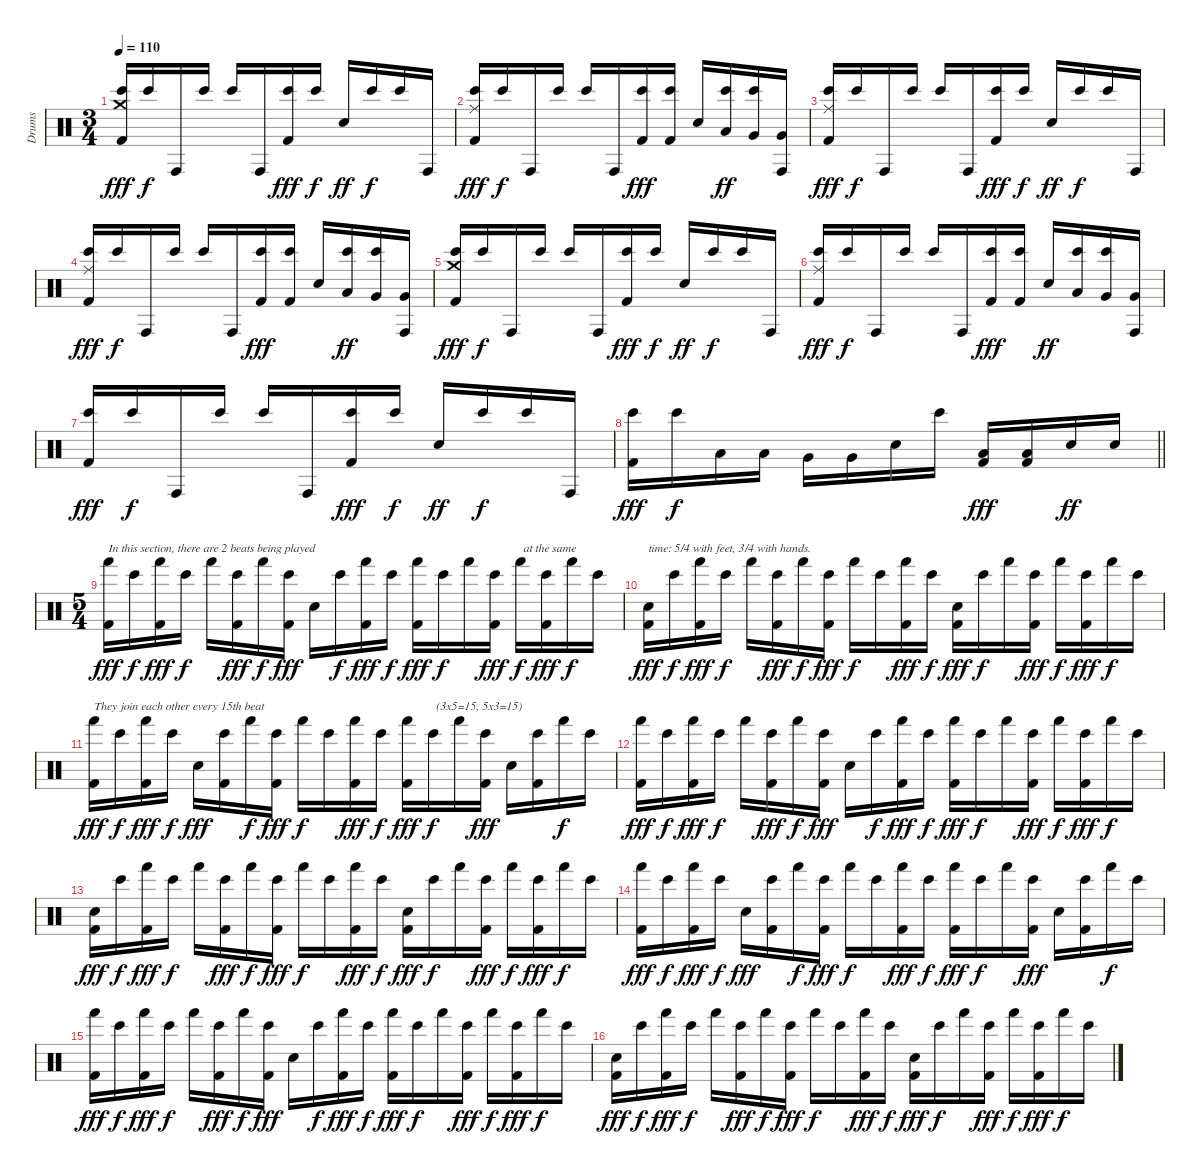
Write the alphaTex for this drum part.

\track ("Drums" "Drums") {instrument percussion}
\staff {score}
\articulation defaults
\ts (3 4)
\section ("" "")
\tempo 110
\clef neutral
\ks c
("Crash medium (hit)" "Bongo High (hit)" "Kick (hit) 2").16{dy fff} "Bongo High (hit)".16{dy f} "Conga high (hit)".16 "Bongo High (hit)".16 "Bongo High (hit)".16 "Conga high (hit)".16 ("Bongo High (hit)" "Kick (hit) 2").16{dy fff} "Bongo High (hit)".16{dy f} "Snare (hit) 2".16{dy ff} "Bongo High (hit)".16{dy f} "Bongo High (hit)".16 "Conga high (hit)".16 |
("Ride (middle)" "Bongo High (hit)" "Kick (hit) 2").16{dy fff} "Bongo High (hit)".16{dy f} "Conga high (hit)".16 "Bongo High (hit)".16 "Bongo High (hit)".16 "Conga high (hit)".16 ("Bongo High (hit)" "Kick (hit) 2").16{dy fff} ("Bongo High (hit)" "Kick (hit) 2").16 "Snare (hit) 2".16 ("Bongo High (hit)" "Low Tom (hit)").16{dy ff} ("Bongo High (hit)" "Very Low Tom (hit)").16 ("Conga high (hit)" "Very Low Tom (hit)").16 |
("Ride (middle)" "Bongo High (hit)" "Kick (hit) 2").16{dy fff} "Bongo High (hit)".16{dy f} "Conga high (hit)".16 "Bongo High (hit)".16 "Bongo High (hit)".16 "Conga high (hit)".16 ("Bongo High (hit)" "Kick (hit) 2").16{dy fff} "Bongo High (hit)".16{dy f} "Snare (hit) 2".16{dy ff} "Bongo High (hit)".16{dy f} "Bongo High (hit)".16 "Conga high (hit)".16 |
("Ride (middle)" "Bongo High (hit)" "Kick (hit) 2").16{dy fff} "Bongo High (hit)".16{dy f} "Conga high (hit)".16 "Bongo High (hit)".16 "Bongo High (hit)".16 "Conga high (hit)".16 ("Bongo High (hit)" "Kick (hit) 2").16{dy fff} ("Bongo High (hit)" "Kick (hit) 2").16 "Snare (hit) 2".16 ("Bongo High (hit)" "Low Tom (hit)").16{dy ff} ("Bongo High (hit)" "Very Low Tom (hit)").16 ("Conga high (hit)" "Very Low Tom (hit)").16 |
("Crash medium (hit)" "Bongo High (hit)" "Kick (hit) 2").16{dy fff} "Bongo High (hit)".16{dy f} "Conga high (hit)".16 "Bongo High (hit)".16 "Bongo High (hit)".16 "Conga high (hit)".16 ("Bongo High (hit)" "Kick (hit) 2").16{dy fff} "Bongo High (hit)".16{dy f} "Snare (hit) 2".16{dy ff} "Bongo High (hit)".16{dy f} "Bongo High (hit)".16 "Conga high (hit)".16 |
("Ride (middle)" "Bongo High (hit)" "Kick (hit) 2").16{dy fff} "Bongo High (hit)".16{dy f} "Conga high (hit)".16 "Bongo High (hit)".16 "Bongo High (hit)".16 "Conga high (hit)".16 ("Bongo High (hit)" "Kick (hit) 2").16{dy fff} ("Bongo High (hit)" "Kick (hit) 2").16 "Snare (hit) 2".16{dy ff} ("Bongo High (hit)" "Low Tom (hit)").16 ("Bongo High (hit)" "Very Low Tom (hit)").16 ("Conga high (hit)" "Very Low Tom (hit)").16 |
("Bongo High (hit)" "Kick (hit) 2").16{dy fff} "Bongo High (hit)".16{dy f} "Conga high (hit)".16 "Bongo High (hit)".16 "Bongo High (hit)".16 "Conga high (hit)".16 ("Bongo High (hit)" "Kick (hit) 2").16{dy fff} "Bongo High (hit)".16{dy f} "Snare (hit) 2".16{dy ff} "Bongo High (hit)".16{dy f} "Bongo High (hit)".16 "Conga high (hit)".16 |
\barLineRight lightlight
("Bongo High (hit)" "Kick (hit) 2").16{dy fff} "Bongo High (hit)".16{dy f} "Low Tom (hit)".16 "Low Tom (hit)".16 "Very Low Tom (hit)".16 "Very Low Tom (hit)".16 "Snare (hit) 2".16 "Bongo High (hit)".16 ("Low Tom (hit)" "Kick (hit) 2").16{dy fff} ("Low Tom (hit)" "Kick (hit) 2").16 "Snare (hit) 2".16{dy ff} "Snare (hit) 2".16 |
\ts (5 4)
\section ("" "")
("Hand (hit)" "Kick (hit) 2").16{txt "In this section, there are 2 beats being played" dy fff} "Bongo High (hit)".16{dy f} ("Hand (hit)" "Kick (hit) 2").16{dy fff} "Bongo High (hit)".16{dy f} "Hand (hit)".16 ("Bongo High (hit)" "Kick (hit) 2").16{dy fff} "Hand (hit)".16{dy f} ("Bongo High (hit)" "Kick (hit) 2").16{dy fff} "Snare (hit) 2".16 "Bongo High (hit)".16{dy f} ("Hand (hit)" "Kick (hit) 2").16{dy fff} "Bongo High (hit)".16{dy f} ("Hand (hit)" "Kick (hit) 2").16{dy fff} "Bongo High (hit)".16{dy f} "Hand (hit)".16 ("Bongo High (hit)" "Kick (hit) 2").16{dy fff} "Hand (hit)".16{txt " at the same " dy f} ("Bongo High (hit)" "Kick (hit) 2").16{dy fff} "Hand (hit)".16{dy f} "Bongo High (hit)".16 |
("Snare (hit) 2" "Kick (hit) 2").16{txt "time: 5/4 with feet, 3/4 with hands." dy fff} "Bongo High (hit)".16{dy f} ("Hand (hit)" "Kick (hit) 2").16{dy fff} "Bongo High (hit)".16{dy f} "Hand (hit)".16 ("Bongo High (hit)" "Kick (hit) 2").16{dy fff} "Hand (hit)".16{dy f} ("Bongo High (hit)" "Kick (hit) 2").16{dy fff} "Hand (hit)".16{dy f} "Bongo High (hit)".16 ("Hand (hit)" "Kick (hit) 2").16{dy fff} "Bongo High (hit)".16{dy f} ("Snare (hit) 2" "Kick (hit) 2").16{dy fff} "Bongo High (hit)".16{dy f} "Hand (hit)".16 ("Bongo High (hit)" "Kick (hit) 2").16{dy fff} "Hand (hit)".16{dy f} ("Bongo High (hit)" "Kick (hit) 2").16{dy fff} "Hand (hit)".16{dy f} "Bongo High (hit)".16 |
("Hand (hit)" "Kick (hit) 2").16{txt "They join each other every 15th beat" dy fff} "Bongo High (hit)".16{dy f} ("Hand (hit)" "Kick (hit) 2").16{dy fff} "Bongo High (hit)".16{dy f} "Snare (hit) 2".16{dy fff} ("Bongo High (hit)" "Kick (hit) 2").16 "Hand (hit)".16{dy f} ("Bongo High (hit)" "Kick (hit) 2").16{dy fff} "Hand (hit)".16{dy f} "Bongo High (hit)".16 ("Hand (hit)" "Kick (hit) 2").16{dy fff} "Bongo High (hit)".16{dy f} ("Hand (hit)" "Kick (hit) 2").16{dy fff} "Bongo High (hit)".16{txt " (3x5=15, 5x3=15)" dy f} "Hand (hit)".16 ("Bongo High (hit)" "Kick (hit) 2").16{dy fff} "Snare (hit) 2".16 ("Bongo High (hit)" "Kick (hit) 2").16 "Hand (hit)".16{dy f} "Bongo High (hit)".16 |
("Hand (hit)" "Kick (hit) 2").16{dy fff} "Bongo High (hit)".16{dy f} ("Hand (hit)" "Kick (hit) 2").16{dy fff} "Bongo High (hit)".16{dy f} "Hand (hit)".16 ("Bongo High (hit)" "Kick (hit) 2").16{dy fff} "Hand (hit)".16{dy f} ("Bongo High (hit)" "Kick (hit) 2").16{dy fff} "Snare (hit) 2".16 "Bongo High (hit)".16{dy f} ("Hand (hit)" "Kick (hit) 2").16{dy fff} "Bongo High (hit)".16{dy f} ("Hand (hit)" "Kick (hit) 2").16{dy fff} "Bongo High (hit)".16{dy f} "Hand (hit)".16 ("Bongo High (hit)" "Kick (hit) 2").16{dy fff} "Hand (hit)".16{dy f} ("Bongo High (hit)" "Kick (hit) 2").16{dy fff} "Hand (hit)".16{dy f} "Bongo High (hit)".16 |
("Snare (hit) 2" "Kick (hit) 2").16{dy fff} "Bongo High (hit)".16{dy f} ("Hand (hit)" "Kick (hit) 2").16{dy fff} "Bongo High (hit)".16{dy f} "Hand (hit)".16 ("Bongo High (hit)" "Kick (hit) 2").16{dy fff} "Hand (hit)".16{dy f} ("Bongo High (hit)" "Kick (hit) 2").16{dy fff} "Hand (hit)".16{dy f} "Bongo High (hit)".16 ("Hand (hit)" "Kick (hit) 2").16{dy fff} "Bongo High (hit)".16{dy f} ("Snare (hit) 2" "Kick (hit) 2").16{dy fff} "Bongo High (hit)".16{dy f} "Hand (hit)".16 ("Bongo High (hit)" "Kick (hit) 2").16{dy fff} "Hand (hit)".16{dy f} ("Bongo High (hit)" "Kick (hit) 2").16{dy fff} "Hand (hit)".16{dy f} "Bongo High (hit)".16 |
("Hand (hit)" "Kick (hit) 2").16{dy fff} "Bongo High (hit)".16{dy f} ("Hand (hit)" "Kick (hit) 2").16{dy fff} "Bongo High (hit)".16{dy f} "Snare (hit) 2".16{dy fff} ("Bongo High (hit)" "Kick (hit) 2").16 "Hand (hit)".16{dy f} ("Bongo High (hit)" "Kick (hit) 2").16{dy fff} "Hand (hit)".16{dy f} "Bongo High (hit)".16 ("Hand (hit)" "Kick (hit) 2").16{dy fff} "Bongo High (hit)".16{dy f} ("Hand (hit)" "Kick (hit) 2").16{dy fff} "Bongo High (hit)".16{dy f} "Hand (hit)".16 ("Bongo High (hit)" "Kick (hit) 2").16{dy fff} "Snare (hit) 2".16 ("Bongo High (hit)" "Kick (hit) 2").16 "Hand (hit)".16{dy f} "Bongo High (hit)".16 |
("Hand (hit)" "Kick (hit) 2").16{dy fff} "Bongo High (hit)".16{dy f} ("Hand (hit)" "Kick (hit) 2").16{dy fff} "Bongo High (hit)".16{dy f} "Hand (hit)".16 ("Bongo High (hit)" "Kick (hit) 2").16{dy fff} "Hand (hit)".16{dy f} ("Bongo High (hit)" "Kick (hit) 2").16{dy fff} "Snare (hit) 2".16 "Bongo High (hit)".16{dy f} ("Hand (hit)" "Kick (hit) 2").16{dy fff} "Bongo High (hit)".16{dy f} ("Hand (hit)" "Kick (hit) 2").16{dy fff} "Bongo High (hit)".16{dy f} "Hand (hit)".16 ("Bongo High (hit)" "Kick (hit) 2").16{dy fff} "Hand (hit)".16{dy f} ("Bongo High (hit)" "Kick (hit) 2").16{dy fff} "Hand (hit)".16{dy f} "Bongo High (hit)".16 |
("Snare (hit) 2" "Kick (hit) 2").16{dy fff} "Bongo High (hit)".16{dy f} ("Hand (hit)" "Kick (hit) 2").16{dy fff} "Bongo High (hit)".16{dy f} "Hand (hit)".16 ("Bongo High (hit)" "Kick (hit) 2").16{dy fff} "Hand (hit)".16{dy f} ("Bongo High (hit)" "Kick (hit) 2").16{dy fff} "Hand (hit)".16{dy f} "Bongo High (hit)".16 ("Hand (hit)" "Kick (hit) 2").16{dy fff} "Bongo High (hit)".16{dy f} ("Snare (hit) 2" "Kick (hit) 2").16{dy fff} "Bongo High (hit)".16{dy f} "Hand (hit)".16 ("Bongo High (hit)" "Kick (hit) 2").16{dy fff} "Hand (hit)".16{dy f} ("Bongo High (hit)" "Kick (hit) 2").16{dy fff} "Hand (hit)".16{dy f} "Bongo High (hit)".16
